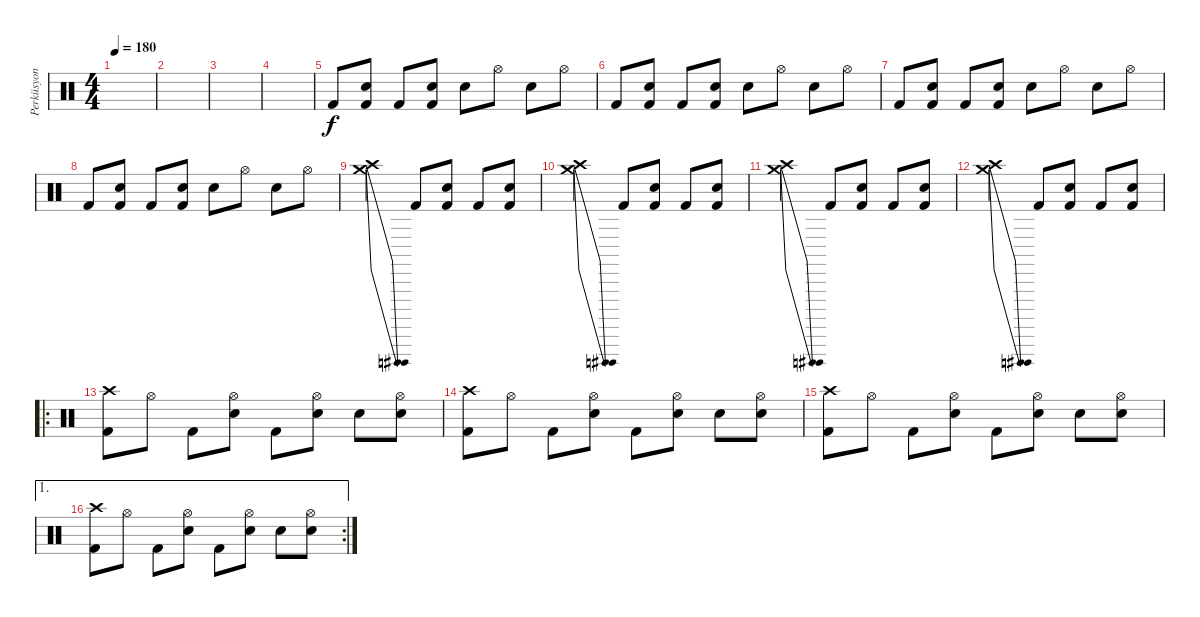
\track ("Perküsyon" "Perküsyon") {instrument percussion}
\staff {score}
\articulation defaults
\ts (4 4)
\tempo 180
\clef neutral
\ks c
|
|
|
|
"Kick (hit) 2".8 ("Electric Snare (hit)" "Kick (hit) 2").8 "Kick (hit) 2".8 ("Electric Snare (hit)" "Kick (hit) 2").8 "Electric Snare (hit)".8 "Hi-Hat (open)".8 "Electric Snare (hit)".8 "Hi-Hat (open)".8 |
"Kick (hit) 2".8 ("Electric Snare (hit)" "Kick (hit) 2").8 "Kick (hit) 2".8 ("Electric Snare (hit)" "Kick (hit) 2").8 "Electric Snare (hit)".8 "Hi-Hat (open)".8 "Electric Snare (hit)".8 "Hi-Hat (open)".8 |
"Kick (hit) 2".8 ("Electric Snare (hit)" "Kick (hit) 2").8 "Kick (hit) 2".8 ("Electric Snare (hit)" "Kick (hit) 2").8 "Electric Snare (hit)".8 "Hi-Hat (open)".8 "Electric Snare (hit)".8 "Hi-Hat (open)".8 |
"Kick (hit) 2".8 ("Electric Snare (hit)" "Kick (hit) 2").8 "Kick (hit) 2".8 ("Electric Snare (hit)" "Kick (hit) 2").8 "Electric Snare (hit)".8 "Hi-Hat (open)".8 "Electric Snare (hit)".8 "Hi-Hat (open)".8 |
("Crash high (hit)"{be (bend 0 0 60 4)} "Crash medium (hit)"{be (bend 0 0 60 4)}).2 "Kick (hit) 2".8 ("Electric Snare (hit)" "Kick (hit) 2").8 "Kick (hit) 2".8 ("Electric Snare (hit)" "Kick (hit) 2").8 |
("Crash high (hit)"{be (bend 0 0 60 4)} "Crash medium (hit)"{be (bend 0 0 60 4)}).2 "Kick (hit) 2".8 ("Electric Snare (hit)" "Kick (hit) 2").8 "Kick (hit) 2".8 ("Electric Snare (hit)" "Kick (hit) 2").8 |
("Crash high (hit)"{be (bend 0 0 60 4)} "Crash medium (hit)"{be (bend 0 0 60 4)}).2 "Kick (hit) 2".8 ("Electric Snare (hit)" "Kick (hit) 2").8 "Kick (hit) 2".8 ("Electric Snare (hit)" "Kick (hit) 2").8 |
("Crash high (hit)"{be (bend 0 0 60 4)} "Crash medium (hit)"{be (bend 0 0 60 4)}).2 "Kick (hit) 2".8 ("Electric Snare (hit)" "Kick (hit) 2").8 "Kick (hit) 2".8 ("Electric Snare (hit)" "Kick (hit) 2").8 |
\ro
("Kick (hit) 2" "Crash high (hit)").8 "Hi-Hat (open)".8 "Kick (hit) 2".8 ("Hi-Hat (open)" "Electric Snare (hit)").8 "Kick (hit) 2".8 ("Hi-Hat (open)" "Electric Snare (hit)").8 "Snare (hit) 2".8 ("Electric Snare (hit)" "Hi-Hat (open)").8 |
("Kick (hit) 2" "Crash high (hit)").8 "Hi-Hat (open)".8 "Kick (hit) 2".8 ("Hi-Hat (open)" "Electric Snare (hit)").8 "Kick (hit) 2".8 ("Hi-Hat (open)" "Electric Snare (hit)").8 "Snare (hit) 2".8 ("Electric Snare (hit)" "Hi-Hat (open)").8 |
("Kick (hit) 2" "Crash high (hit)").8 "Hi-Hat (open)".8 "Kick (hit) 2".8 ("Hi-Hat (open)" "Electric Snare (hit)").8 "Kick (hit) 2".8 ("Hi-Hat (open)" "Electric Snare (hit)").8 "Snare (hit) 2".8 ("Electric Snare (hit)" "Hi-Hat (open)").8 |
\ae 1
\rc 2
("Kick (hit) 2" "Crash high (hit)").8 "Hi-Hat (open)".8 "Kick (hit) 2".8 ("Hi-Hat (open)" "Electric Snare (hit)").8 "Kick (hit) 2".8 ("Hi-Hat (open)" "Electric Snare (hit)").8 "Snare (hit) 2".8 ("Electric Snare (hit)" "Hi-Hat (open)").8
